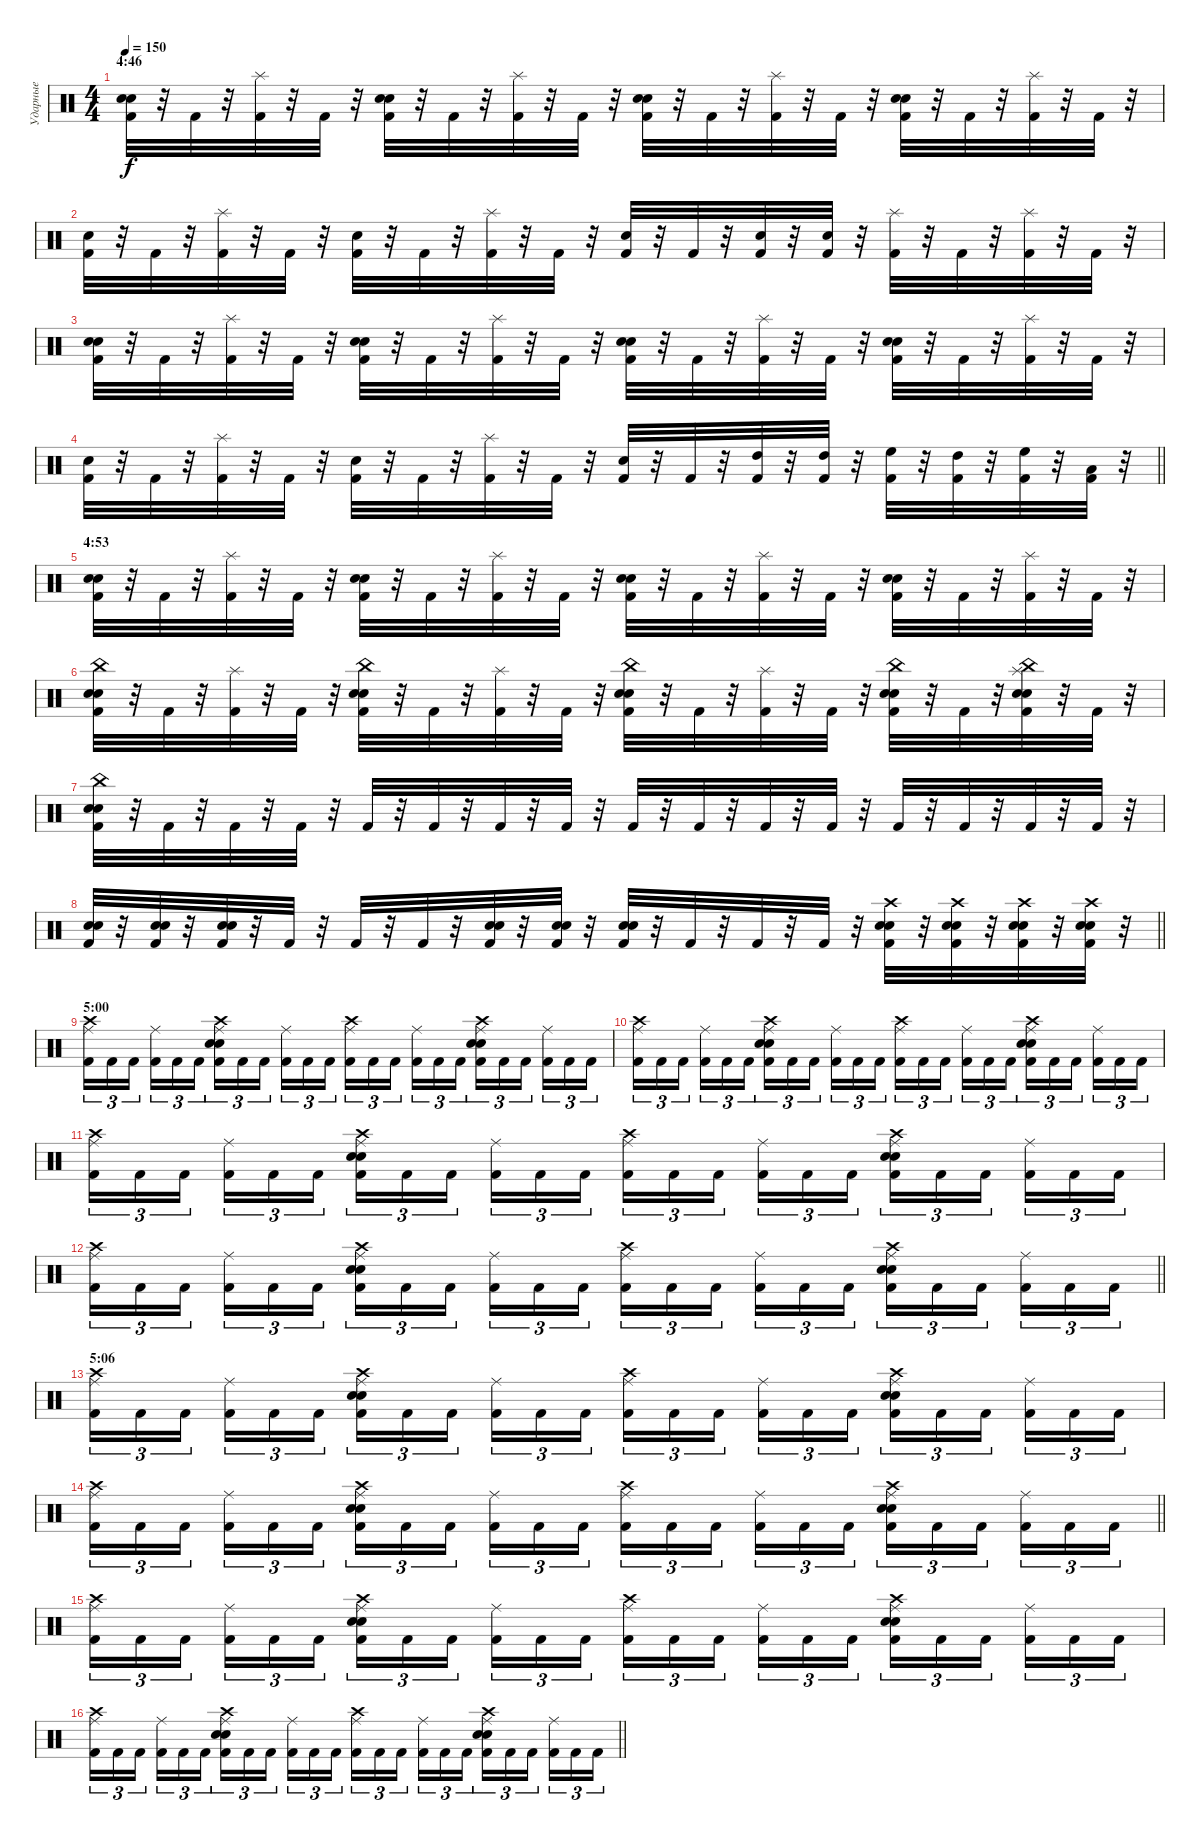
\track ("Ударные" "Ударные") {instrument percussion}
\staff {score}
\articulation defaults
\ts (4 4)
\section ("" "4:46")
\tempo 150
\clef neutral
\ks c
("Electric Snare (hit)" "Snare (hit) 2" "Kick (hit) 2").32{dy f} r.32 "Kick (hit) 2".32 r.32 ("Splash (hit)" "Kick (hit) 2").32 r.32 "Kick (hit) 2".32 r.32 ("Electric Snare (hit)" "Snare (hit) 2" "Kick (hit) 2").32 r.32 "Kick (hit) 2".32 r.32 ("Splash (hit)" "Kick (hit) 2").32 r.32 "Kick (hit) 2".32 r.32 ("Electric Snare (hit)" "Snare (hit) 2" "Kick (hit) 2").32 r.32 "Kick (hit) 2".32 r.32 ("Splash (hit)" "Kick (hit) 2").32 r.32 "Kick (hit) 2".32 r.32 ("Electric Snare (hit)" "Snare (hit) 2" "Kick (hit) 2").32 r.32 "Kick (hit) 2".32 r.32 ("Splash (hit)" "Kick (hit) 2").32 r.32 "Kick (hit) 2".32 r.32 |
("Electric Snare (hit)" "Kick (hit) 2").32 r.32 "Kick (hit) 2".32 r.32 ("Splash (hit)" "Kick (hit) 2").32 r.32 "Kick (hit) 2".32 r.32 ("Electric Snare (hit)" "Kick (hit) 2").32 r.32 "Kick (hit) 2".32 r.32 ("Splash (hit)" "Kick (hit) 2").32 r.32 "Kick (hit) 2".32 r.32 ("Electric Snare (hit)" "Kick (hit) 2").32 r.32 "Kick (hit) 2".32 r.32 ("Electric Snare (hit)" "Kick (hit) 2").32 r.32 ("Electric Snare (hit)" "Kick (hit) 2").32 r.32 ("Splash (hit)" "Kick (hit) 2").32 r.32 "Kick (hit) 2".32 r.32 ("Splash (hit)" "Kick (hit) 2").32 r.32 "Kick (hit) 2".32 r.32 |
("Electric Snare (hit)" "Snare (hit) 2" "Kick (hit) 2").32 r.32 "Kick (hit) 2".32 r.32 ("Splash (hit)" "Kick (hit) 2").32 r.32 "Kick (hit) 2".32 r.32 ("Electric Snare (hit)" "Snare (hit) 2" "Kick (hit) 2").32 r.32 "Kick (hit) 2".32 r.32 ("Splash (hit)" "Kick (hit) 2").32 r.32 "Kick (hit) 2".32 r.32 ("Electric Snare (hit)" "Snare (hit) 2" "Kick (hit) 2").32 r.32 "Kick (hit) 2".32 r.32 ("Splash (hit)" "Kick (hit) 2").32 r.32 "Kick (hit) 2".32 r.32 ("Electric Snare (hit)" "Snare (hit) 2" "Kick (hit) 2").32 r.32 "Kick (hit) 2".32 r.32 ("Splash (hit)" "Kick (hit) 2").32 r.32 "Kick (hit) 2".32 r.32 |
\barLineRight lightlight
("Electric Snare (hit)" "Kick (hit) 2").32 r.32 "Kick (hit) 2".32 r.32 ("Splash (hit)" "Kick (hit) 2").32 r.32 "Kick (hit) 2".32 r.32 ("Electric Snare (hit)" "Kick (hit) 2").32 r.32 "Kick (hit) 2".32 r.32 ("Splash (hit)" "Kick (hit) 2").32 r.32 "Kick (hit) 2".32 r.32 ("Electric Snare (hit)" "Kick (hit) 2").32 r.32 "Kick (hit) 2".32 r.32 ("High Tom (hit)" "Kick (hit) 2").32 r.32 ("High Tom (hit)" "Kick (hit) 2").32 r.32 ("High Floor Tom (hit)" "Kick (hit) 2").32 r.32 ("High Tom (hit)" "Kick (hit) 2").32 r.32 ("High Floor Tom (hit)" "Kick (hit) 2").32 r.32 ("Low Tom (hit)" "Kick (hit) 2").32 r.32 |
\section ("" "4:53")
("Electric Snare (hit)" "Snare (hit) 2" "Kick (hit) 2").32 r.32 "Kick (hit) 2".32 r.32 ("Splash (hit)" "Kick (hit) 2").32 r.32 "Kick (hit) 2".32 r.32 ("Electric Snare (hit)" "Snare (hit) 2" "Kick (hit) 2").32 r.32 "Kick (hit) 2".32 r.32 ("Splash (hit)" "Kick (hit) 2").32 r.32 "Kick (hit) 2".32 r.32 ("Electric Snare (hit)" "Snare (hit) 2" "Kick (hit) 2").32 r.32 "Kick (hit) 2".32 r.32 ("Splash (hit)" "Kick (hit) 2").32 r.32 "Kick (hit) 2".32 r.32 ("Electric Snare (hit)" "Snare (hit) 2" "Kick (hit) 2").32 r.32 "Kick (hit) 2".32 r.32 ("Splash (hit)" "Kick (hit) 2").32 r.32 "Kick (hit) 2".32 r.32 |
("Electric Snare (hit)" "Snare (hit) 2" "China (hit)" "Kick (hit) 2").32 r.32 "Kick (hit) 2".32 r.32 ("Splash (hit)" "Kick (hit) 2").32 r.32 "Kick (hit) 2".32 r.32 ("Electric Snare (hit)" "Snare (hit) 2" "China (hit)" "Kick (hit) 2").32 r.32 "Kick (hit) 2".32 r.32 ("Splash (hit)" "Kick (hit) 2").32 r.32 "Kick (hit) 2".32 r.32 ("Electric Snare (hit)" "Snare (hit) 2" "China (hit)" "Kick (hit) 2").32 r.32 "Kick (hit) 2".32 r.32 ("Splash (hit)" "Kick (hit) 2").32 r.32 "Kick (hit) 2".32 r.32 ("Electric Snare (hit)" "Snare (hit) 2" "China (hit)" "Kick (hit) 2").32 r.32 "Kick (hit) 2".32 r.32 ("Splash (hit)" "Electric Snare (hit)" "Snare (hit) 2" "China (hit)" "Kick (hit) 2").32 r.32 "Kick (hit) 2".32 r.32 |
("Electric Snare (hit)" "Snare (hit) 2" "China (hit)" "Kick (hit) 2").32 r.32 "Kick (hit) 2".32 r.32 "Kick (hit) 2".32 r.32 "Kick (hit) 2".32 r.32 "Kick (hit) 2".32 r.32 "Kick (hit) 2".32 r.32 "Kick (hit) 2".32 r.32 "Kick (hit) 2".32 r.32 "Kick (hit) 2".32 r.32 "Kick (hit) 2".32 r.32 "Kick (hit) 2".32 r.32 "Kick (hit) 2".32 r.32 "Kick (hit) 2".32 r.32 "Kick (hit) 2".32 r.32 "Kick (hit) 2".32 r.32 "Kick (hit) 2".32 r.32 |
\barLineRight lightlight
("Electric Snare (hit)" "Snare (hit) 2" "Kick (hit) 2").32 r.32 ("Electric Snare (hit)" "Snare (hit) 2" "Kick (hit) 2").32 r.32 ("Electric Snare (hit)" "Snare (hit) 2" "Kick (hit) 2").32 r.32 "Kick (hit) 2".32 r.32 "Kick (hit) 2".32 r.32 "Kick (hit) 2".32 r.32 ("Electric Snare (hit)" "Snare (hit) 2" "Kick (hit) 2").32 r.32 ("Electric Snare (hit)" "Snare (hit) 2" "Kick (hit) 2").32 r.32 ("Electric Snare (hit)" "Snare (hit) 2" "Kick (hit) 2").32 r.32 "Kick (hit) 2".32 r.32 "Kick (hit) 2".32 r.32 "Kick (hit) 2".32 r.32 ("Crash high (hit)" "Electric Snare (hit)" "Snare (hit) 2" "Kick (hit) 2").32 r.32 ("Crash high (hit)" "Electric Snare (hit)" "Snare (hit) 2" "Kick (hit) 2").32 r.32 ("Crash high (hit)" "Electric Snare (hit)" "Snare (hit) 2" "Kick (hit) 2").32 r.32 ("Crash high (hit)" "Electric Snare (hit)" "Snare (hit) 2" "Kick (hit) 2").32 r.32 |
\section ("" "5:00")
("Ride (middle)" "Crash high (hit)" "Kick (hit) 2").16{tu (3 2)} "Kick (hit) 2".16{tu (3 2)} "Kick (hit) 2".16{tu (3 2) beam splitsecondary} ("Ride (middle)" "Kick (hit) 2").16{tu (3 2)} "Kick (hit) 2".16{tu (3 2)} "Kick (hit) 2".16{tu (3 2)} ("Ride (middle)" "Snare (hit) 2" "Electric Snare (hit)" "Kick (hit) 2" "Crash high (hit)").16{tu (3 2)} "Kick (hit) 2".16{tu (3 2)} "Kick (hit) 2".16{tu (3 2) beam splitsecondary} ("Ride (middle)" "Kick (hit) 2").16{tu (3 2)} "Kick (hit) 2".16{tu (3 2)} "Kick (hit) 2".16{tu (3 2)} ("Ride (middle)" "Crash high (hit)" "Kick (hit) 2").16{tu (3 2)} "Kick (hit) 2".16{tu (3 2)} "Kick (hit) 2".16{tu (3 2) beam splitsecondary} ("Ride (middle)" "Kick (hit) 2").16{tu (3 2)} "Kick (hit) 2".16{tu (3 2)} "Kick (hit) 2".16{tu (3 2)} ("Ride (middle)" "Snare (hit) 2" "Electric Snare (hit)" "Kick (hit) 2" "Crash high (hit)").16{tu (3 2)} "Kick (hit) 2".16{tu (3 2)} "Kick (hit) 2".16{tu (3 2) beam splitsecondary} ("Ride (middle)" "Kick (hit) 2").16{tu (3 2)} "Kick (hit) 2".16{tu (3 2)} "Kick (hit) 2".16{tu (3 2)} |
("Ride (middle)" "Crash high (hit)" "Kick (hit) 2").16{tu (3 2)} "Kick (hit) 2".16{tu (3 2)} "Kick (hit) 2".16{tu (3 2) beam splitsecondary} ("Ride (middle)" "Kick (hit) 2").16{tu (3 2)} "Kick (hit) 2".16{tu (3 2)} "Kick (hit) 2".16{tu (3 2)} ("Ride (middle)" "Snare (hit) 2" "Electric Snare (hit)" "Kick (hit) 2" "Crash high (hit)").16{tu (3 2)} "Kick (hit) 2".16{tu (3 2)} "Kick (hit) 2".16{tu (3 2) beam splitsecondary} ("Ride (middle)" "Kick (hit) 2").16{tu (3 2)} "Kick (hit) 2".16{tu (3 2)} "Kick (hit) 2".16{tu (3 2)} ("Ride (middle)" "Crash high (hit)" "Kick (hit) 2").16{tu (3 2)} "Kick (hit) 2".16{tu (3 2)} "Kick (hit) 2".16{tu (3 2) beam splitsecondary} ("Ride (middle)" "Kick (hit) 2").16{tu (3 2)} "Kick (hit) 2".16{tu (3 2)} "Kick (hit) 2".16{tu (3 2)} ("Ride (middle)" "Snare (hit) 2" "Electric Snare (hit)" "Kick (hit) 2" "Crash high (hit)").16{tu (3 2)} "Kick (hit) 2".16{tu (3 2)} "Kick (hit) 2".16{tu (3 2) beam splitsecondary} ("Ride (middle)" "Kick (hit) 2").16{tu (3 2)} "Kick (hit) 2".16{tu (3 2)} "Kick (hit) 2".16{tu (3 2)} |
("Ride (middle)" "Crash high (hit)" "Kick (hit) 2").16{tu (3 2)} "Kick (hit) 2".16{tu (3 2)} "Kick (hit) 2".16{tu (3 2) beam splitsecondary} ("Ride (middle)" "Kick (hit) 2").16{tu (3 2)} "Kick (hit) 2".16{tu (3 2)} "Kick (hit) 2".16{tu (3 2)} ("Ride (middle)" "Snare (hit) 2" "Electric Snare (hit)" "Kick (hit) 2" "Crash high (hit)").16{tu (3 2)} "Kick (hit) 2".16{tu (3 2)} "Kick (hit) 2".16{tu (3 2) beam splitsecondary} ("Ride (middle)" "Kick (hit) 2").16{tu (3 2)} "Kick (hit) 2".16{tu (3 2)} "Kick (hit) 2".16{tu (3 2)} ("Ride (middle)" "Crash high (hit)" "Kick (hit) 2").16{tu (3 2)} "Kick (hit) 2".16{tu (3 2)} "Kick (hit) 2".16{tu (3 2) beam splitsecondary} ("Ride (middle)" "Kick (hit) 2").16{tu (3 2)} "Kick (hit) 2".16{tu (3 2)} "Kick (hit) 2".16{tu (3 2)} ("Ride (middle)" "Snare (hit) 2" "Electric Snare (hit)" "Kick (hit) 2" "Crash high (hit)").16{tu (3 2)} "Kick (hit) 2".16{tu (3 2)} "Kick (hit) 2".16{tu (3 2) beam splitsecondary} ("Ride (middle)" "Kick (hit) 2").16{tu (3 2)} "Kick (hit) 2".16{tu (3 2)} "Kick (hit) 2".16{tu (3 2)} |
\barLineRight lightlight
("Ride (middle)" "Crash high (hit)" "Kick (hit) 2").16{tu (3 2)} "Kick (hit) 2".16{tu (3 2)} "Kick (hit) 2".16{tu (3 2) beam splitsecondary} ("Ride (middle)" "Kick (hit) 2").16{tu (3 2)} "Kick (hit) 2".16{tu (3 2)} "Kick (hit) 2".16{tu (3 2)} ("Ride (middle)" "Snare (hit) 2" "Electric Snare (hit)" "Kick (hit) 2" "Crash high (hit)").16{tu (3 2)} "Kick (hit) 2".16{tu (3 2)} "Kick (hit) 2".16{tu (3 2) beam splitsecondary} ("Ride (middle)" "Kick (hit) 2").16{tu (3 2)} "Kick (hit) 2".16{tu (3 2)} "Kick (hit) 2".16{tu (3 2)} ("Ride (middle)" "Crash high (hit)" "Kick (hit) 2").16{tu (3 2)} "Kick (hit) 2".16{tu (3 2)} "Kick (hit) 2".16{tu (3 2) beam splitsecondary} ("Ride (middle)" "Kick (hit) 2").16{tu (3 2)} "Kick (hit) 2".16{tu (3 2)} "Kick (hit) 2".16{tu (3 2)} ("Ride (middle)" "Snare (hit) 2" "Electric Snare (hit)" "Kick (hit) 2" "Crash high (hit)").16{tu (3 2)} "Kick (hit) 2".16{tu (3 2)} "Kick (hit) 2".16{tu (3 2) beam splitsecondary} ("Ride (middle)" "Kick (hit) 2").16{tu (3 2)} "Kick (hit) 2".16{tu (3 2)} "Kick (hit) 2".16{tu (3 2)} |
\section ("" "5:06")
("Ride (middle)" "Crash high (hit)" "Kick (hit) 2").16{tu (3 2)} "Kick (hit) 2".16{tu (3 2)} "Kick (hit) 2".16{tu (3 2) beam splitsecondary} ("Ride (middle)" "Kick (hit) 2").16{tu (3 2)} "Kick (hit) 2".16{tu (3 2)} "Kick (hit) 2".16{tu (3 2)} ("Ride (middle)" "Snare (hit) 2" "Electric Snare (hit)" "Kick (hit) 2" "Crash high (hit)").16{tu (3 2)} "Kick (hit) 2".16{tu (3 2)} "Kick (hit) 2".16{tu (3 2) beam splitsecondary} ("Ride (middle)" "Kick (hit) 2").16{tu (3 2)} "Kick (hit) 2".16{tu (3 2)} "Kick (hit) 2".16{tu (3 2)} ("Ride (middle)" "Crash high (hit)" "Kick (hit) 2").16{tu (3 2)} "Kick (hit) 2".16{tu (3 2)} "Kick (hit) 2".16{tu (3 2) beam splitsecondary} ("Ride (middle)" "Kick (hit) 2").16{tu (3 2)} "Kick (hit) 2".16{tu (3 2)} "Kick (hit) 2".16{tu (3 2)} ("Ride (middle)" "Snare (hit) 2" "Electric Snare (hit)" "Kick (hit) 2" "Crash high (hit)").16{tu (3 2)} "Kick (hit) 2".16{tu (3 2)} "Kick (hit) 2".16{tu (3 2) beam splitsecondary} ("Ride (middle)" "Kick (hit) 2").16{tu (3 2)} "Kick (hit) 2".16{tu (3 2)} "Kick (hit) 2".16{tu (3 2)} |
\barLineRight lightlight
("Ride (middle)" "Crash high (hit)" "Kick (hit) 2").16{tu (3 2)} "Kick (hit) 2".16{tu (3 2)} "Kick (hit) 2".16{tu (3 2) beam splitsecondary} ("Ride (middle)" "Kick (hit) 2").16{tu (3 2)} "Kick (hit) 2".16{tu (3 2)} "Kick (hit) 2".16{tu (3 2)} ("Ride (middle)" "Snare (hit) 2" "Electric Snare (hit)" "Kick (hit) 2" "Crash high (hit)").16{tu (3 2)} "Kick (hit) 2".16{tu (3 2)} "Kick (hit) 2".16{tu (3 2) beam splitsecondary} ("Ride (middle)" "Kick (hit) 2").16{tu (3 2)} "Kick (hit) 2".16{tu (3 2)} "Kick (hit) 2".16{tu (3 2)} ("Ride (middle)" "Crash high (hit)" "Kick (hit) 2").16{tu (3 2)} "Kick (hit) 2".16{tu (3 2)} "Kick (hit) 2".16{tu (3 2) beam splitsecondary} ("Ride (middle)" "Kick (hit) 2").16{tu (3 2)} "Kick (hit) 2".16{tu (3 2)} "Kick (hit) 2".16{tu (3 2)} ("Ride (middle)" "Snare (hit) 2" "Electric Snare (hit)" "Kick (hit) 2" "Crash high (hit)").16{tu (3 2)} "Kick (hit) 2".16{tu (3 2)} "Kick (hit) 2".16{tu (3 2) beam splitsecondary} ("Ride (middle)" "Kick (hit) 2").16{tu (3 2)} "Kick (hit) 2".16{tu (3 2)} "Kick (hit) 2".16{tu (3 2)} |
("Ride (middle)" "Crash high (hit)" "Kick (hit) 2").16{tu (3 2)} "Kick (hit) 2".16{tu (3 2)} "Kick (hit) 2".16{tu (3 2) beam splitsecondary} ("Ride (middle)" "Kick (hit) 2").16{tu (3 2)} "Kick (hit) 2".16{tu (3 2)} "Kick (hit) 2".16{tu (3 2)} ("Ride (middle)" "Snare (hit) 2" "Electric Snare (hit)" "Kick (hit) 2" "Crash high (hit)").16{tu (3 2)} "Kick (hit) 2".16{tu (3 2)} "Kick (hit) 2".16{tu (3 2) beam splitsecondary} ("Ride (middle)" "Kick (hit) 2").16{tu (3 2)} "Kick (hit) 2".16{tu (3 2)} "Kick (hit) 2".16{tu (3 2)} ("Ride (middle)" "Crash high (hit)" "Kick (hit) 2").16{tu (3 2)} "Kick (hit) 2".16{tu (3 2)} "Kick (hit) 2".16{tu (3 2) beam splitsecondary} ("Ride (middle)" "Kick (hit) 2").16{tu (3 2)} "Kick (hit) 2".16{tu (3 2)} "Kick (hit) 2".16{tu (3 2)} ("Ride (middle)" "Snare (hit) 2" "Electric Snare (hit)" "Kick (hit) 2" "Crash high (hit)").16{tu (3 2)} "Kick (hit) 2".16{tu (3 2)} "Kick (hit) 2".16{tu (3 2) beam splitsecondary} ("Ride (middle)" "Kick (hit) 2").16{tu (3 2)} "Kick (hit) 2".16{tu (3 2)} "Kick (hit) 2".16{tu (3 2)} |
\barLineRight lightlight
("Ride (middle)" "Crash high (hit)" "Kick (hit) 2").16{tu (3 2)} "Kick (hit) 2".16{tu (3 2)} "Kick (hit) 2".16{tu (3 2) beam splitsecondary} ("Ride (middle)" "Kick (hit) 2").16{tu (3 2)} "Kick (hit) 2".16{tu (3 2)} "Kick (hit) 2".16{tu (3 2)} ("Ride (middle)" "Snare (hit) 2" "Electric Snare (hit)" "Kick (hit) 2" "Crash high (hit)").16{tu (3 2)} "Kick (hit) 2".16{tu (3 2)} "Kick (hit) 2".16{tu (3 2) beam splitsecondary} ("Ride (middle)" "Kick (hit) 2").16{tu (3 2)} "Kick (hit) 2".16{tu (3 2)} "Kick (hit) 2".16{tu (3 2)} ("Ride (middle)" "Crash high (hit)" "Kick (hit) 2").16{tu (3 2)} "Kick (hit) 2".16{tu (3 2)} "Kick (hit) 2".16{tu (3 2) beam splitsecondary} ("Ride (middle)" "Kick (hit) 2").16{tu (3 2)} "Kick (hit) 2".16{tu (3 2)} "Kick (hit) 2".16{tu (3 2)} ("Ride (middle)" "Snare (hit) 2" "Electric Snare (hit)" "Kick (hit) 2" "Crash high (hit)").16{tu (3 2)} "Kick (hit) 2".16{tu (3 2)} "Kick (hit) 2".16{tu (3 2) beam splitsecondary} ("Ride (middle)" "Kick (hit) 2").16{tu (3 2)} "Kick (hit) 2".16{tu (3 2)} "Kick (hit) 2".16{tu (3 2)}
